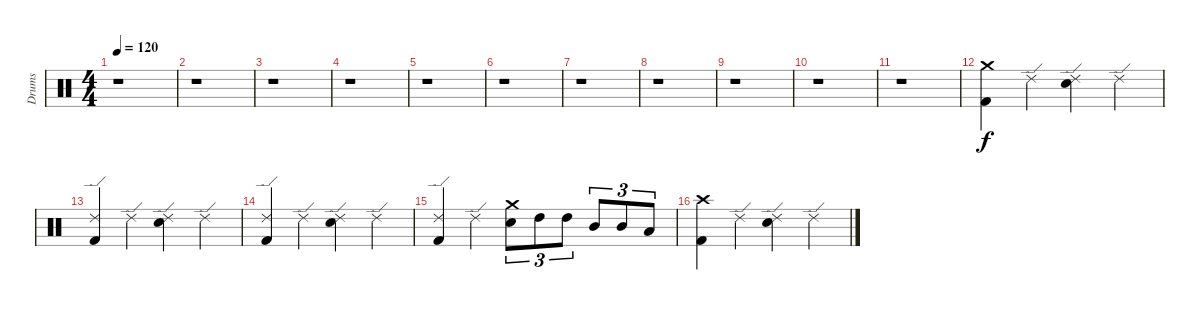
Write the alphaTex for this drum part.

\track ("Drums" "Drums") {instrument percussion}
\staff {score}
\articulation defaults
\ts (4 4)
\tempo 120
\clef neutral
\ks c
r.1{dy f} |
r.1 |
r.1 |
r.1 |
r.1 |
r.1 |
r.1 |
r.1 |
r.1 |
r.1 |
r.1 |
("Kick (hit) 2" "Crash medium (hit)").4 "Ride (edge) 2".4 ("Electric Snare (hit)" "Ride (edge) 2").4 "Ride (edge) 2".4 |
("Kick (hit) 2" "Ride (edge) 2").4 "Ride (edge) 2".4 ("Electric Snare (hit)" "Ride (edge) 2").4 "Ride (edge) 2".4 |
("Kick (hit) 2" "Ride (edge) 2").4 "Ride (edge) 2".4 ("Electric Snare (hit)" "Ride (edge) 2").4 "Ride (edge) 2".4 |
("Kick (hit) 2" "Ride (edge) 2").4 "Ride (edge) 2".4 ("Electric Snare (hit)" "Crash medium (hit)").8{tu (3 2)} "High Tom (hit)".8{tu (3 2)} "High Tom (hit)".8{tu (3 2)} "Mid Tom (hit)".8{tu (3 2)} "Mid Tom (hit)".8{tu (3 2)} "Low Tom (hit)".8{tu (3 2)} |
("Kick (hit) 2" "Crash high (hit)").4 "Ride (edge) 2".4 ("Electric Snare (hit)" "Ride (edge) 2").4 "Ride (edge) 2".4
